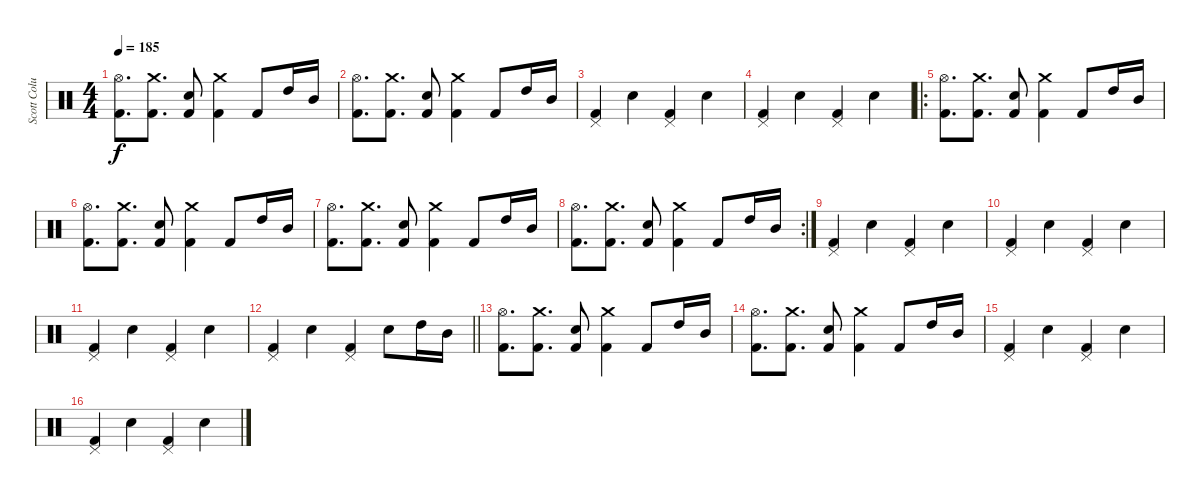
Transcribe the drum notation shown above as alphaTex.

\track ("Scott Columbus" "Scott Colu") {instrument percussion}
\staff {score}
\articulation defaults
\ts (4 4)
\tempo 185
\clef neutral
\ks c
("Hi-Hat (open)" "Kick (hit) 2").8{d dy f} ("Crash medium (hit)" "Kick (hit) 2").8{d} ("Snare (hit) 2" "Kick (hit) 2").8 ("Crash medium (hit)" "Kick (hit) 2").4 "Kick (hit) 2".8 "High Tom (hit)".16 "Mid Tom (hit)".16 |
("Hi-Hat (open)" "Kick (hit) 2").8{d} ("Crash medium (hit)" "Kick (hit) 2").8{d} ("Snare (hit) 2" "Kick (hit) 2").8 ("Crash medium (hit)" "Kick (hit) 2").4 "Kick (hit) 2".8 "High Tom (hit)".16 "Mid Tom (hit)".16 |
("Pedal Hi-Hat (hit)" "Kick (hit) 2").4 "Snare (hit) 2".4 ("Pedal Hi-Hat (hit)" "Kick (hit) 2").4 "Snare (hit) 2".4 |
("Pedal Hi-Hat (hit)" "Kick (hit) 2").4 "Snare (hit) 2".4 ("Pedal Hi-Hat (hit)" "Kick (hit) 2").4 "Snare (hit) 2".4 |
\ro
("Hi-Hat (open)" "Kick (hit) 2").8{d} ("Crash medium (hit)" "Kick (hit) 2").8{d} ("Snare (hit) 2" "Kick (hit) 2").8 ("Crash medium (hit)" "Kick (hit) 2").4 "Kick (hit) 2".8 "High Tom (hit)".16 "Mid Tom (hit)".16 |
("Hi-Hat (open)" "Kick (hit) 2").8{d} ("Crash medium (hit)" "Kick (hit) 2").8{d} ("Snare (hit) 2" "Kick (hit) 2").8 ("Crash medium (hit)" "Kick (hit) 2").4 "Kick (hit) 2".8 "High Tom (hit)".16 "Mid Tom (hit)".16 |
("Hi-Hat (open)" "Kick (hit) 2").8{d} ("Crash medium (hit)" "Kick (hit) 2").8{d} ("Snare (hit) 2" "Kick (hit) 2").8 ("Crash medium (hit)" "Kick (hit) 2").4 "Kick (hit) 2".8 "High Tom (hit)".16 "Mid Tom (hit)".16 |
\rc 2
("Hi-Hat (open)" "Kick (hit) 2").8{d} ("Crash medium (hit)" "Kick (hit) 2").8{d} ("Snare (hit) 2" "Kick (hit) 2").8 ("Crash medium (hit)" "Kick (hit) 2").4 "Kick (hit) 2".8 "High Tom (hit)".16 "Mid Tom (hit)".16 |
("Pedal Hi-Hat (hit)" "Kick (hit) 2").4 "Snare (hit) 2".4 ("Pedal Hi-Hat (hit)" "Kick (hit) 2").4 "Snare (hit) 2".4 |
("Pedal Hi-Hat (hit)" "Kick (hit) 2").4 "Snare (hit) 2".4 ("Pedal Hi-Hat (hit)" "Kick (hit) 2").4 "Snare (hit) 2".4 |
("Pedal Hi-Hat (hit)" "Kick (hit) 2").4 "Snare (hit) 2".4 ("Pedal Hi-Hat (hit)" "Kick (hit) 2").4 "Snare (hit) 2".4 |
\barLineRight lightlight
("Pedal Hi-Hat (hit)" "Kick (hit) 2").4 "Snare (hit) 2".4 ("Pedal Hi-Hat (hit)" "Kick (hit) 2").4 "Snare (hit) 2".8 "High Tom (hit)".16 "Mid Tom (hit)".16 |
("Hi-Hat (open)" "Kick (hit) 2").8{d} ("Crash medium (hit)" "Kick (hit) 2").8{d} ("Snare (hit) 2" "Kick (hit) 2").8 ("Crash medium (hit)" "Kick (hit) 2").4 "Kick (hit) 2".8 "High Tom (hit)".16 "Mid Tom (hit)".16 |
("Hi-Hat (open)" "Kick (hit) 2").8{d} ("Crash medium (hit)" "Kick (hit) 2").8{d} ("Snare (hit) 2" "Kick (hit) 2").8 ("Crash medium (hit)" "Kick (hit) 2").4 "Kick (hit) 2".8 "High Tom (hit)".16 "Mid Tom (hit)".16 |
("Pedal Hi-Hat (hit)" "Kick (hit) 2").4 "Snare (hit) 2".4 ("Pedal Hi-Hat (hit)" "Kick (hit) 2").4 "Snare (hit) 2".4 |
("Pedal Hi-Hat (hit)" "Kick (hit) 2").4 "Snare (hit) 2".4 ("Pedal Hi-Hat (hit)" "Kick (hit) 2").4 "Snare (hit) 2".4
